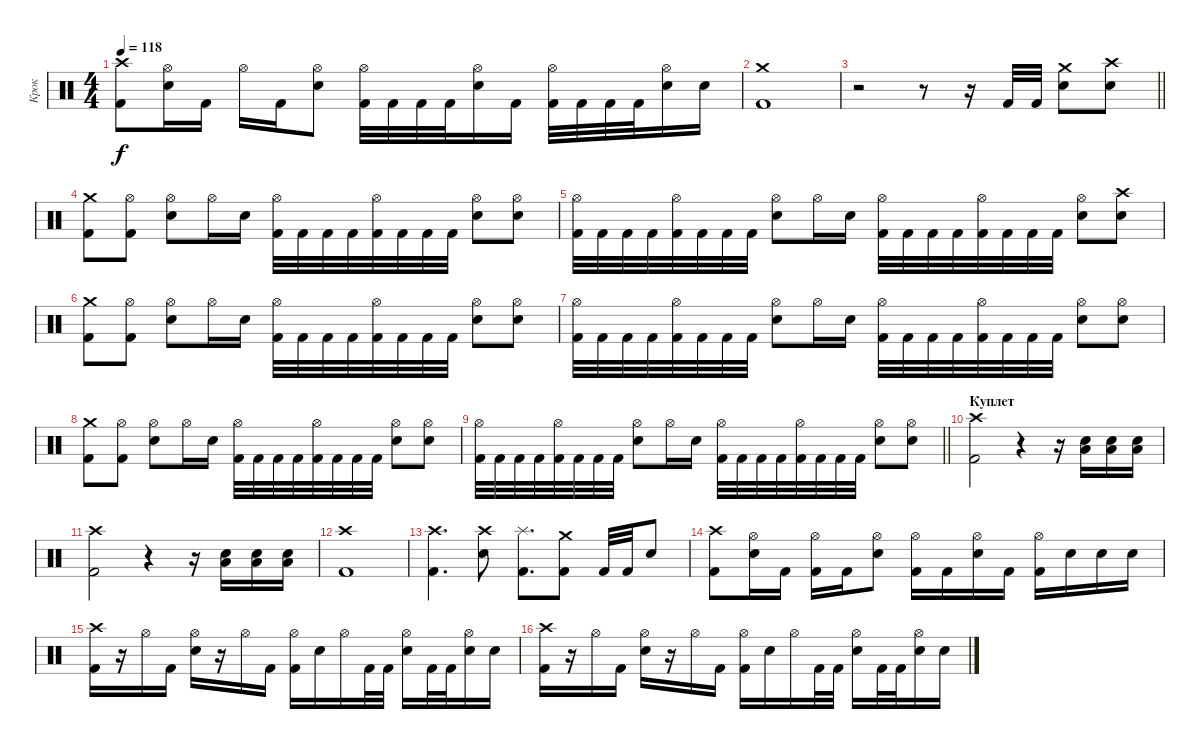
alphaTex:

\track ("Крок" "Крок") {instrument percussion}
\staff {score}
\articulation defaults
\ts (4 4)
\tempo 118
\clef neutral
\ks c
("Kick (hit) 2" "Crash high (hit)").8{dy f} ("Electric Snare (hit)" "Hi-Hat (open)").16 "Kick (hit) 2".16 "Hi-Hat (open)".16 "Kick (hit) 2".16 ("Electric Snare (hit)" "Hi-Hat (open)").8 ("Kick (hit) 2" "Hi-Hat (open)").32 "Kick (hit) 2".32 "Kick (hit) 2".32 "Kick (hit) 2".32 ("Electric Snare (hit)" "Hi-Hat (open)").16 "Kick (hit) 2".16 ("Kick (hit) 2" "Hi-Hat (open)").32 "Kick (hit) 2".32 "Kick (hit) 2".32 "Kick (hit) 2".32 ("Electric Snare (hit)" "Hi-Hat (open)").16 "Electric Snare (hit)".16 |
("Kick (hit) 2" "Crash medium (hit)").1 |
\barLineRight lightlight
r.2 r.8 r.16 "Kick (hit) 2".32 "Kick (hit) 2".32 ("Electric Snare (hit)" "Crash medium (hit)").8 ("Electric Snare (hit)" "Crash high (hit)").8 |
("Kick (hit) 2" "Crash medium (hit)").8 ("Kick (hit) 2" "Hi-Hat (open)").8 ("Electric Snare (hit)" "Hi-Hat (open)").8 "Hi-Hat (open)".16 "Electric Snare (hit)".16 ("Kick (hit) 2" "Hi-Hat (open)").32 "Kick (hit) 2".32 "Kick (hit) 2".32 "Kick (hit) 2".32 ("Kick (hit) 2" "Hi-Hat (open)").32 "Kick (hit) 2".32 "Kick (hit) 2".32 "Kick (hit) 2".32 ("Electric Snare (hit)" "Hi-Hat (open)").8 ("Electric Snare (hit)" "Hi-Hat (open)").8 |
("Kick (hit) 2" "Hi-Hat (open)").32 "Kick (hit) 2".32 "Kick (hit) 2".32 "Kick (hit) 2".32 ("Kick (hit) 2" "Hi-Hat (open)").32 "Kick (hit) 2".32 "Kick (hit) 2".32 "Kick (hit) 2".32 ("Electric Snare (hit)" "Hi-Hat (open)").8 "Hi-Hat (open)".16 "Electric Snare (hit)".16 ("Kick (hit) 2" "Hi-Hat (open)").32 "Kick (hit) 2".32 "Kick (hit) 2".32 "Kick (hit) 2".32 ("Kick (hit) 2" "Hi-Hat (open)").32 "Kick (hit) 2".32 "Kick (hit) 2".32 "Kick (hit) 2".32 ("Electric Snare (hit)" "Hi-Hat (open)").8 ("Electric Snare (hit)" "Crash high (hit)").8 |
("Kick (hit) 2" "Crash medium (hit)").8 ("Kick (hit) 2" "Hi-Hat (open)").8 ("Electric Snare (hit)" "Hi-Hat (open)").8 "Hi-Hat (open)".16 "Electric Snare (hit)".16 ("Kick (hit) 2" "Hi-Hat (open)").32 "Kick (hit) 2".32 "Kick (hit) 2".32 "Kick (hit) 2".32 ("Kick (hit) 2" "Hi-Hat (open)").32 "Kick (hit) 2".32 "Kick (hit) 2".32 "Kick (hit) 2".32 ("Electric Snare (hit)" "Hi-Hat (open)").8 ("Electric Snare (hit)" "Hi-Hat (open)").8 |
("Kick (hit) 2" "Hi-Hat (open)").32 "Kick (hit) 2".32 "Kick (hit) 2".32 "Kick (hit) 2".32 ("Kick (hit) 2" "Hi-Hat (open)").32 "Kick (hit) 2".32 "Kick (hit) 2".32 "Kick (hit) 2".32 ("Electric Snare (hit)" "Hi-Hat (open)").8 "Hi-Hat (open)".16 "Electric Snare (hit)".16 ("Kick (hit) 2" "Hi-Hat (open)").32 "Kick (hit) 2".32 "Kick (hit) 2".32 "Kick (hit) 2".32 ("Kick (hit) 2" "Hi-Hat (open)").32 "Kick (hit) 2".32 "Kick (hit) 2".32 "Kick (hit) 2".32 ("Electric Snare (hit)" "Hi-Hat (open)").8 ("Electric Snare (hit)" "Hi-Hat (open)").8 |
("Kick (hit) 2" "Crash medium (hit)").8 ("Kick (hit) 2" "Hi-Hat (open)").8 ("Electric Snare (hit)" "Hi-Hat (open)").8 "Hi-Hat (open)".16 "Electric Snare (hit)".16 ("Kick (hit) 2" "Hi-Hat (open)").32 "Kick (hit) 2".32 "Kick (hit) 2".32 "Kick (hit) 2".32 ("Kick (hit) 2" "Hi-Hat (open)").32 "Kick (hit) 2".32 "Kick (hit) 2".32 "Kick (hit) 2".32 ("Electric Snare (hit)" "Hi-Hat (open)").8 ("Electric Snare (hit)" "Hi-Hat (open)").8 |
\barLineRight lightlight
("Kick (hit) 2" "Hi-Hat (open)").32 "Kick (hit) 2".32 "Kick (hit) 2".32 "Kick (hit) 2".32 ("Kick (hit) 2" "Hi-Hat (open)").32 "Kick (hit) 2".32 "Kick (hit) 2".32 "Kick (hit) 2".32 ("Electric Snare (hit)" "Hi-Hat (open)").8 "Hi-Hat (open)".16 "Electric Snare (hit)".16 ("Kick (hit) 2" "Hi-Hat (open)").32 "Kick (hit) 2".32 "Kick (hit) 2".32 "Kick (hit) 2".32 ("Kick (hit) 2" "Hi-Hat (open)").32 "Kick (hit) 2".32 "Kick (hit) 2".32 "Kick (hit) 2".32 ("Electric Snare (hit)" "Hi-Hat (open)").8 ("Electric Snare (hit)" "Hi-Hat (open)").8 |
\section ("" "Куплет")
("Crash high (hit)" "Kick (hit) 2").2 r.4 r.16 ("Electric Snare (hit)" "Low Floor Tom (hit)").16 ("Electric Snare (hit)" "Low Floor Tom (hit)").16 ("Electric Snare (hit)" "Low Floor Tom (hit)").16 |
("Crash high (hit)" "Kick (hit) 2").2 r.4 r.16 ("Electric Snare (hit)" "Low Floor Tom (hit)").16 ("Electric Snare (hit)" "Low Floor Tom (hit)").16 ("Electric Snare (hit)" "Low Floor Tom (hit)").16 |
("Crash high (hit)" "Kick (hit) 2").1 |
("Kick (hit) 2" "Crash high (hit)").4{d} ("Electric Snare (hit)" "Crash high (hit)").8 ("Kick (hit) 2" "Splash (hit)").8{d} ("Kick (hit) 2" "Crash medium (hit)").8 "Kick (hit) 2".32 "Kick (hit) 2".32 "Electric Snare (hit)".8 |
("Kick (hit) 2" "Crash high (hit)").8 ("Electric Snare (hit)" "Hi-Hat (open)").16 "Kick (hit) 2".16 ("Kick (hit) 2" "Hi-Hat (open)").16 "Kick (hit) 2".16 ("Electric Snare (hit)" "Hi-Hat (open)").8 ("Kick (hit) 2" "Hi-Hat (open)").16 "Kick (hit) 2".16 ("Electric Snare (hit)" "Hi-Hat (open)").16 "Kick (hit) 2".16 ("Kick (hit) 2" "Hi-Hat (open)").16 "Electric Snare (hit)".16 "Electric Snare (hit)".16 "Electric Snare (hit)".16 |
("Kick (hit) 2" "Crash high (hit)").16 r.16 "Hi-Hat (open)".16 "Kick (hit) 2".16 ("Electric Snare (hit)" "Hi-Hat (open)").16 r.16 "Hi-Hat (open)".16 "Kick (hit) 2".16 ("Kick (hit) 2" "Hi-Hat (open)").16 "Electric Snare (hit)".16 "Hi-Hat (open)".16 "Kick (hit) 2".32 "Kick (hit) 2".32 ("Electric Snare (hit)" "Hi-Hat (open)").16 "Kick (hit) 2".32 "Kick (hit) 2".32 ("Electric Snare (hit)" "Hi-Hat (open)").16 "Electric Snare (hit)".16 |
("Kick (hit) 2" "Crash high (hit)").16 r.16 "Hi-Hat (open)".16 "Kick (hit) 2".16 ("Electric Snare (hit)" "Hi-Hat (open)").16 r.16 "Hi-Hat (open)".16 "Kick (hit) 2".16 ("Kick (hit) 2" "Hi-Hat (open)").16 "Electric Snare (hit)".16 "Hi-Hat (open)".16 "Kick (hit) 2".32 "Kick (hit) 2".32 ("Electric Snare (hit)" "Hi-Hat (open)").16 "Kick (hit) 2".32 "Kick (hit) 2".32 ("Electric Snare (hit)" "Hi-Hat (open)").16 "Electric Snare (hit)".16
